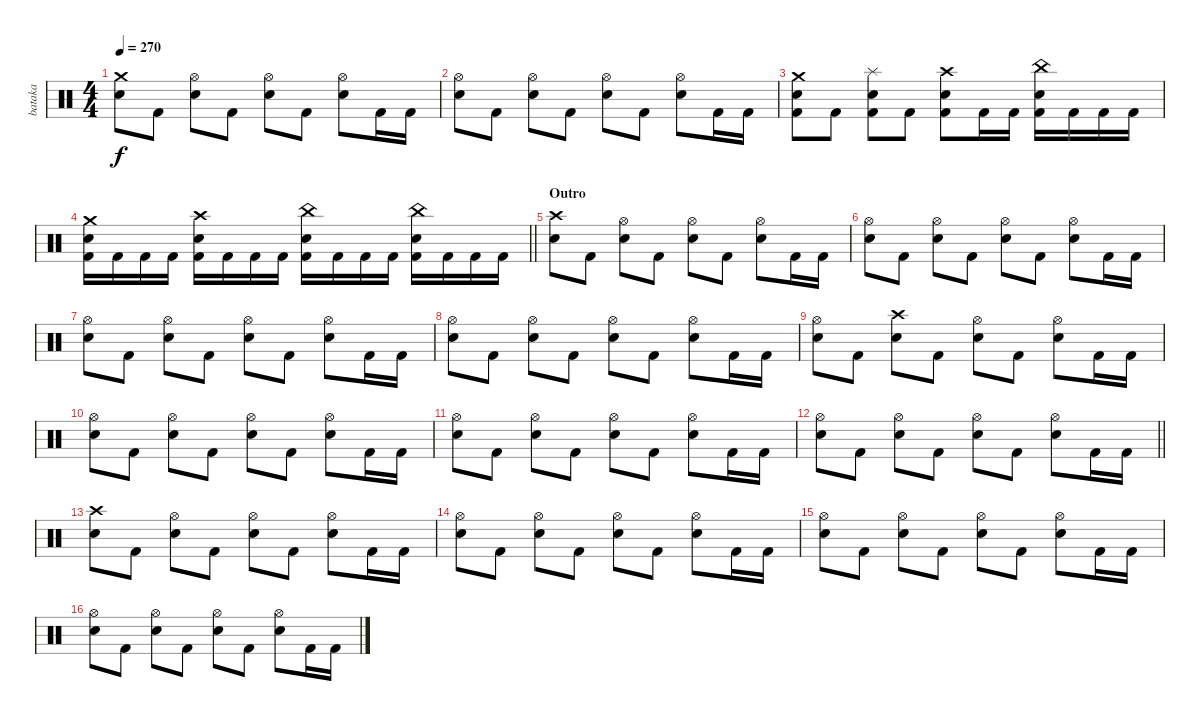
\track ("bataka" "bataka") {instrument percussion}
\staff {score}
\articulation defaults
\ts (4 4)
\tempo 270
\clef neutral
\ks c
("Crash medium (hit)" "Electric Snare (hit)").8{dy f} "Kick (hit) 2".8 ("Hi-Hat (open)" "Electric Snare (hit)").8 "Kick (hit) 2".8 ("Hi-Hat (open)" "Electric Snare (hit)").8 "Kick (hit) 2".8 ("Hi-Hat (open)" "Electric Snare (hit)").8 "Kick (hit) 2".16 "Kick (hit) 2".16 |
("Hi-Hat (open)" "Electric Snare (hit)").8 "Kick (hit) 2".8 ("Hi-Hat (open)" "Electric Snare (hit)").8 "Kick (hit) 2".8 ("Hi-Hat (open)" "Electric Snare (hit)").8 "Kick (hit) 2".8 ("Hi-Hat (open)" "Electric Snare (hit)").8 "Kick (hit) 2".16 "Kick (hit) 2".16 |
("Crash medium (hit)" "Electric Snare (hit)" "Kick (hit) 2").8 "Kick (hit) 2".8 ("Splash (hit)" "Electric Snare (hit)" "Kick (hit) 2").8 "Kick (hit) 2".8 ("Crash high (hit)" "Electric Snare (hit)" "Kick (hit) 2").8 "Kick (hit) 2".16 "Kick (hit) 2".16 ("China (hit)" "Electric Snare (hit)" "Kick (hit) 2").16 "Kick (hit) 2".16 "Kick (hit) 2".16 "Kick (hit) 2".16 |
\barLineRight lightlight
("Crash medium (hit)" "Electric Snare (hit)" "Kick (hit) 2").16 "Kick (hit) 2".16 "Kick (hit) 2".16 "Kick (hit) 2".16 ("Crash high (hit)" "Electric Snare (hit)" "Kick (hit) 2").16 "Kick (hit) 2".16 "Kick (hit) 2".16 "Kick (hit) 2".16 ("China (hit)" "Electric Snare (hit)" "Kick (hit) 2").16 "Kick (hit) 2".16 "Kick (hit) 2".16 "Kick (hit) 2".16 ("China (hit)" "Electric Snare (hit)" "Kick (hit) 2").16 "Kick (hit) 2".16 "Kick (hit) 2".16 "Kick (hit) 2".16 |
\section ("" "Outro")
("Crash high (hit)" "Electric Snare (hit)").8 "Kick (hit) 2".8 ("Hi-Hat (open)" "Electric Snare (hit)").8 "Kick (hit) 2".8 ("Hi-Hat (open)" "Electric Snare (hit)").8 "Kick (hit) 2".8 ("Hi-Hat (open)" "Electric Snare (hit)").8 "Kick (hit) 2".16 "Kick (hit) 2".16 |
("Hi-Hat (open)" "Electric Snare (hit)").8 "Kick (hit) 2".8 ("Hi-Hat (open)" "Electric Snare (hit)").8 "Kick (hit) 2".8 ("Hi-Hat (open)" "Electric Snare (hit)").8 "Kick (hit) 2".8 ("Hi-Hat (open)" "Electric Snare (hit)").8 "Kick (hit) 2".16 "Kick (hit) 2".16 |
("Hi-Hat (open)" "Electric Snare (hit)").8 "Kick (hit) 2".8 ("Hi-Hat (open)" "Electric Snare (hit)").8 "Kick (hit) 2".8 ("Hi-Hat (open)" "Electric Snare (hit)").8 "Kick (hit) 2".8 ("Hi-Hat (open)" "Electric Snare (hit)").8 "Kick (hit) 2".16 "Kick (hit) 2".16 |
("Hi-Hat (open)" "Electric Snare (hit)").8 "Kick (hit) 2".8 ("Hi-Hat (open)" "Electric Snare (hit)").8 "Kick (hit) 2".8 ("Hi-Hat (open)" "Electric Snare (hit)").8 "Kick (hit) 2".8 ("Hi-Hat (open)" "Electric Snare (hit)").8 "Kick (hit) 2".16 "Kick (hit) 2".16 |
("Hi-Hat (open)" "Electric Snare (hit)").8 "Kick (hit) 2".8 ("Crash high (hit)" "Electric Snare (hit)").8 "Kick (hit) 2".8 ("Hi-Hat (open)" "Electric Snare (hit)").8 "Kick (hit) 2".8 ("Hi-Hat (open)" "Electric Snare (hit)").8 "Kick (hit) 2".16 "Kick (hit) 2".16 |
("Hi-Hat (open)" "Electric Snare (hit)").8 "Kick (hit) 2".8 ("Hi-Hat (open)" "Electric Snare (hit)").8 "Kick (hit) 2".8 ("Hi-Hat (open)" "Electric Snare (hit)").8 "Kick (hit) 2".8 ("Hi-Hat (open)" "Electric Snare (hit)").8 "Kick (hit) 2".16 "Kick (hit) 2".16 |
("Hi-Hat (open)" "Electric Snare (hit)").8 "Kick (hit) 2".8 ("Hi-Hat (open)" "Electric Snare (hit)").8 "Kick (hit) 2".8 ("Hi-Hat (open)" "Electric Snare (hit)").8 "Kick (hit) 2".8 ("Hi-Hat (open)" "Electric Snare (hit)").8 "Kick (hit) 2".16 "Kick (hit) 2".16 |
\barLineRight lightlight
("Hi-Hat (open)" "Electric Snare (hit)").8 "Kick (hit) 2".8 ("Hi-Hat (open)" "Electric Snare (hit)").8 "Kick (hit) 2".8 ("Hi-Hat (open)" "Electric Snare (hit)").8 "Kick (hit) 2".8 ("Hi-Hat (open)" "Electric Snare (hit)").8 "Kick (hit) 2".16 "Kick (hit) 2".16 |
("Crash high (hit)" "Electric Snare (hit)").8 "Kick (hit) 2".8 ("Hi-Hat (open)" "Electric Snare (hit)").8 "Kick (hit) 2".8 ("Hi-Hat (open)" "Electric Snare (hit)").8 "Kick (hit) 2".8 ("Hi-Hat (open)" "Electric Snare (hit)").8 "Kick (hit) 2".16 "Kick (hit) 2".16 |
("Hi-Hat (open)" "Electric Snare (hit)").8 "Kick (hit) 2".8 ("Hi-Hat (open)" "Electric Snare (hit)").8 "Kick (hit) 2".8 ("Hi-Hat (open)" "Electric Snare (hit)").8 "Kick (hit) 2".8 ("Hi-Hat (open)" "Electric Snare (hit)").8 "Kick (hit) 2".16 "Kick (hit) 2".16 |
("Hi-Hat (open)" "Electric Snare (hit)").8 "Kick (hit) 2".8 ("Hi-Hat (open)" "Electric Snare (hit)").8 "Kick (hit) 2".8 ("Hi-Hat (open)" "Electric Snare (hit)").8 "Kick (hit) 2".8 ("Hi-Hat (open)" "Electric Snare (hit)").8 "Kick (hit) 2".16 "Kick (hit) 2".16 |
("Hi-Hat (open)" "Electric Snare (hit)").8 "Kick (hit) 2".8 ("Hi-Hat (open)" "Electric Snare (hit)").8 "Kick (hit) 2".8 ("Hi-Hat (open)" "Electric Snare (hit)").8 "Kick (hit) 2".8 ("Hi-Hat (open)" "Electric Snare (hit)").8 "Kick (hit) 2".16 "Kick (hit) 2".16
